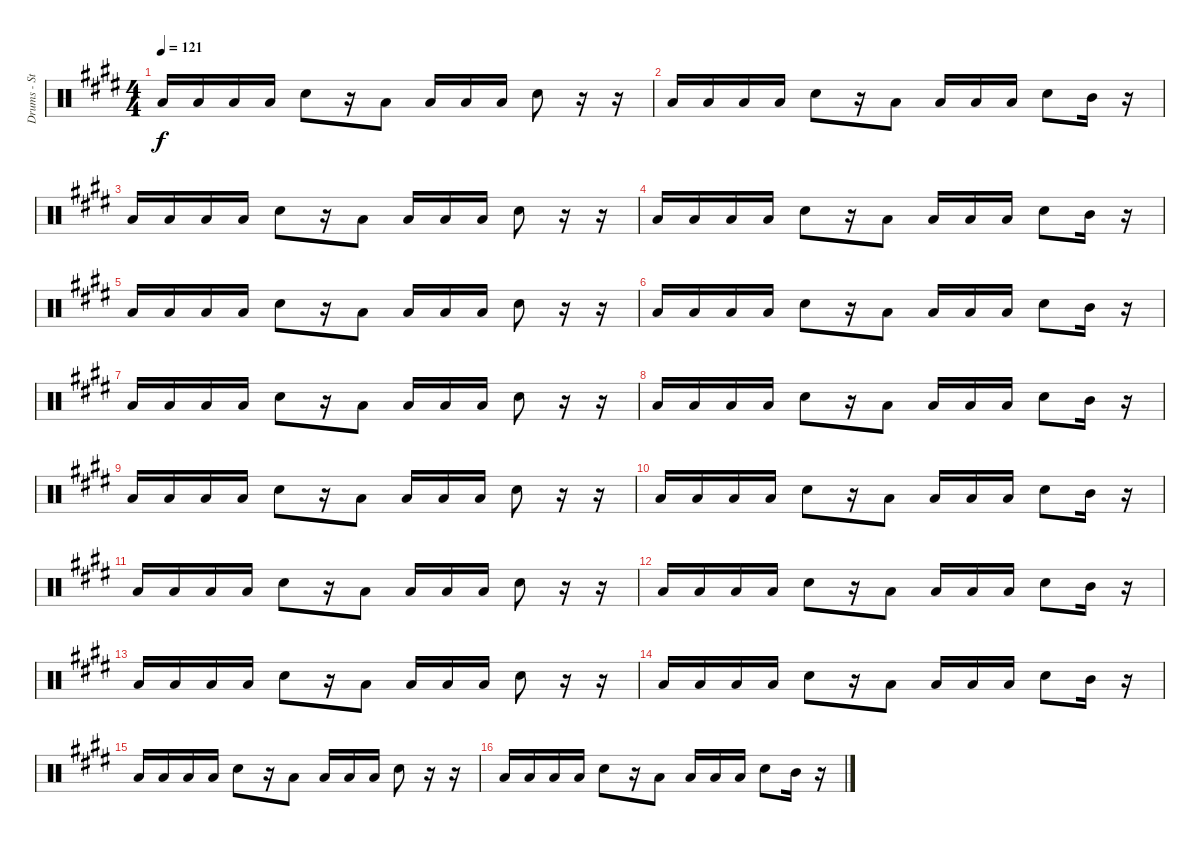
\track ("Drums - Stephen Morris" "Drums - St") {instrument percussion}
\staff {score}
\articulation defaults
\ts (4 4)
\tempo 121
\clef neutral
\ks c#minor "Low Tom (hit)".16{dy f} "Low Tom (hit)".16 "Low Tom (hit)".16 "Low Tom (hit)".16 "Electric Snare (hit)".8
r.16 "Low Tom (hit)".8 "Low Tom (hit)".16 "Low Tom (hit)".16 "Low Tom (hit)".16 "Electric Snare (hit)".8 r.16 r.16 |
\ks e "Low Tom (hit)".16 "Low Tom (hit)".16 "Low Tom (hit)".16 "Low Tom (hit)".16 "Electric Snare (hit)".8
r.16 "Low Tom (hit)".8 "Low Tom (hit)".16 "Low Tom (hit)".16 "Low Tom (hit)".16 "Electric Snare (hit)".8 "Mid Tom (hit)".16 r.16 |
\ks c#minor "Low Tom (hit)".16 "Low Tom (hit)".16 "Low Tom (hit)".16 "Low Tom (hit)".16 "Electric Snare (hit)".8
r.16 "Low Tom (hit)".8 "Low Tom (hit)".16 "Low Tom (hit)".16 "Low Tom (hit)".16 "Electric Snare (hit)".8 r.16 r.16 |
"Low Tom (hit)".16 "Low Tom (hit)".16 "Low Tom (hit)".16 "Low Tom (hit)".16 "Electric Snare (hit)".8 r.16 "Low Tom (hit)".8 "Low Tom (hit)".16 "Low Tom (hit)".16 "Low Tom (hit)".16 "Electric Snare (hit)".8 "Mid Tom (hit)".16 r.16 |
"Low Tom (hit)".16 "Low Tom (hit)".16 "Low Tom (hit)".16 "Low Tom (hit)".16 "Electric Snare (hit)".8 r.16 "Low Tom (hit)".8 "Low Tom (hit)".16 "Low Tom (hit)".16 "Low Tom (hit)".16 "Electric Snare (hit)".8 r.16 r.16 |
\ks e "Low Tom (hit)".16 "Low Tom (hit)".16 "Low Tom (hit)".16 "Low Tom (hit)".16 "Electric Snare (hit)".8
r.16 "Low Tom (hit)".8 "Low Tom (hit)".16 "Low Tom (hit)".16 "Low Tom (hit)".16 "Electric Snare (hit)".8 "Mid Tom (hit)".16 r.16 |
\ks c#minor "Low Tom (hit)".16 "Low Tom (hit)".16 "Low Tom (hit)".16 "Low Tom (hit)".16 "Electric Snare (hit)".8
r.16 "Low Tom (hit)".8 "Low Tom (hit)".16 "Low Tom (hit)".16 "Low Tom (hit)".16 "Electric Snare (hit)".8 r.16 r.16 |
"Low Tom (hit)".16 "Low Tom (hit)".16 "Low Tom (hit)".16 "Low Tom (hit)".16 "Electric Snare (hit)".8 r.16 "Low Tom (hit)".8 "Low Tom (hit)".16 "Low Tom (hit)".16 "Low Tom (hit)".16 "Electric Snare (hit)".8 "Mid Tom (hit)".16 r.16 |
"Low Tom (hit)".16 "Low Tom (hit)".16 "Low Tom (hit)".16 "Low Tom (hit)".16 "Electric Snare (hit)".8 r.16 "Low Tom (hit)".8 "Low Tom (hit)".16 "Low Tom (hit)".16 "Low Tom (hit)".16 "Electric Snare (hit)".8 r.16 r.16 |
\ks e "Low Tom (hit)".16 "Low Tom (hit)".16 "Low Tom (hit)".16 "Low Tom (hit)".16 "Electric Snare (hit)".8
r.16 "Low Tom (hit)".8 "Low Tom (hit)".16 "Low Tom (hit)".16 "Low Tom (hit)".16 "Electric Snare (hit)".8 "Mid Tom (hit)".16 r.16 |
\ks c#minor "Low Tom (hit)".16 "Low Tom (hit)".16 "Low Tom (hit)".16 "Low Tom (hit)".16 "Electric Snare (hit)".8
r.16 "Low Tom (hit)".8 "Low Tom (hit)".16 "Low Tom (hit)".16 "Low Tom (hit)".16 "Electric Snare (hit)".8 r.16 r.16 |
"Low Tom (hit)".16 "Low Tom (hit)".16 "Low Tom (hit)".16 "Low Tom (hit)".16 "Electric Snare (hit)".8 r.16 "Low Tom (hit)".8 "Low Tom (hit)".16 "Low Tom (hit)".16 "Low Tom (hit)".16 "Electric Snare (hit)".8 "Mid Tom (hit)".16 r.16 |
"Low Tom (hit)".16 "Low Tom (hit)".16 "Low Tom (hit)".16 "Low Tom (hit)".16 "Electric Snare (hit)".8 r.16 "Low Tom (hit)".8 "Low Tom (hit)".16 "Low Tom (hit)".16 "Low Tom (hit)".16 "Electric Snare (hit)".8 r.16 r.16 |
\ks e "Low Tom (hit)".16 "Low Tom (hit)".16 "Low Tom (hit)".16 "Low Tom (hit)".16 "Electric Snare (hit)".8
r.16 "Low Tom (hit)".8 "Low Tom (hit)".16 "Low Tom (hit)".16 "Low Tom (hit)".16 "Electric Snare (hit)".8 "Mid Tom (hit)".16 r.16 |
\ks c#minor "Low Tom (hit)".16 "Low Tom (hit)".16 "Low Tom (hit)".16 "Low Tom (hit)".16 "Electric Snare (hit)".8
r.16 "Low Tom (hit)".8 "Low Tom (hit)".16 "Low Tom (hit)".16 "Low Tom (hit)".16 "Electric Snare (hit)".8 r.16 r.16 |
"Low Tom (hit)".16 "Low Tom (hit)".16 "Low Tom (hit)".16 "Low Tom (hit)".16 "Electric Snare (hit)".8 r.16 "Low Tom (hit)".8 "Low Tom (hit)".16 "Low Tom (hit)".16 "Low Tom (hit)".16 "Electric Snare (hit)".8 "Mid Tom (hit)".16 r.16
